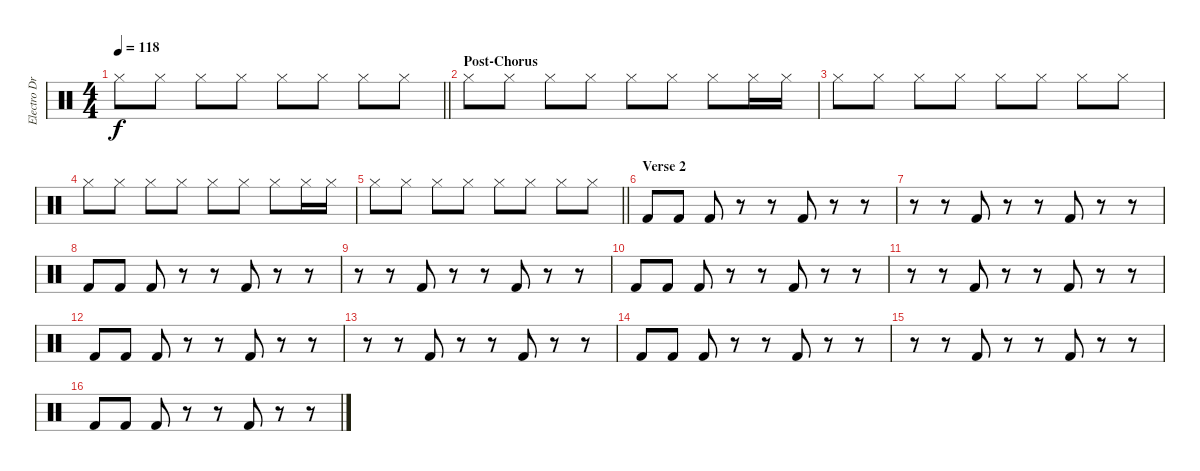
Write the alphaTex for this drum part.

\track ("Electro Drums" "Electro Dr") {instrument percussion}
\staff {score}
\articulation defaults
\ts (4 4)
\tempo 118
\clef neutral
\barLineRight lightlight
\ks c "Hi-Hat (closed)".8{dy f} "Hi-Hat (closed)".8 "Hi-Hat (closed)".8 "Hi-Hat (closed)".8 "Hi-Hat (closed)".8 "Hi-Hat (closed)".8 "Hi-Hat (closed)".8 "Hi-Hat (closed)".8
|
\section ("" "Post-Chorus")
"Hi-Hat (closed)".8 "Hi-Hat (closed)".8 "Hi-Hat (closed)".8 "Hi-Hat (closed)".8 "Hi-Hat (closed)".8 "Hi-Hat (closed)".8 "Hi-Hat (closed)".8 "Hi-Hat (closed)".16 "Hi-Hat (closed)".16 |
"Hi-Hat (closed)".8 "Hi-Hat (closed)".8 "Hi-Hat (closed)".8 "Hi-Hat (closed)".8 "Hi-Hat (closed)".8 "Hi-Hat (closed)".8 "Hi-Hat (closed)".8 "Hi-Hat (closed)".8 |
"Hi-Hat (closed)".8 "Hi-Hat (closed)".8 "Hi-Hat (closed)".8 "Hi-Hat (closed)".8 "Hi-Hat (closed)".8 "Hi-Hat (closed)".8 "Hi-Hat (closed)".8 "Hi-Hat (closed)".16 "Hi-Hat (closed)".16 |
\barLineRight lightlight "Hi-Hat (closed)".8 "Hi-Hat (closed)".8 "Hi-Hat (closed)".8 "Hi-Hat (closed)".8 "Hi-Hat (closed)".8 "Hi-Hat (closed)".8 "Hi-Hat (closed)".8 "Hi-Hat (closed)".8
|
\section ("" "Verse 2")
"Kick (hit) 2".8{volume 16} "Kick (hit) 2".8 "Kick (hit) 2".8 r.8 r.8 "Kick (hit) 2".8 r.8 r.8 |
r.8 r.8 "Kick (hit) 2".8 r.8 r.8 "Kick (hit) 2".8 r.8 r.8 |
"Kick (hit) 2".8 "Kick (hit) 2".8 "Kick (hit) 2".8 r.8 r.8 "Kick (hit) 2".8 r.8 r.8 |
r.8 r.8 "Kick (hit) 2".8 r.8 r.8 "Kick (hit) 2".8 r.8 r.8 |
"Kick (hit) 2".8 "Kick (hit) 2".8 "Kick (hit) 2".8 r.8 r.8 "Kick (hit) 2".8 r.8 r.8 |
r.8 r.8 "Kick (hit) 2".8 r.8 r.8 "Kick (hit) 2".8 r.8 r.8 |
"Kick (hit) 2".8 "Kick (hit) 2".8 "Kick (hit) 2".8 r.8 r.8 "Kick (hit) 2".8 r.8 r.8 |
r.8 r.8 "Kick (hit) 2".8 r.8 r.8 "Kick (hit) 2".8 r.8 r.8 |
"Kick (hit) 2".8 "Kick (hit) 2".8 "Kick (hit) 2".8 r.8 r.8 "Kick (hit) 2".8 r.8 r.8 |
r.8 r.8 "Kick (hit) 2".8 r.8 r.8 "Kick (hit) 2".8 r.8 r.8 |
"Kick (hit) 2".8 "Kick (hit) 2".8 "Kick (hit) 2".8 r.8 r.8 "Kick (hit) 2".8 r.8 r.8
